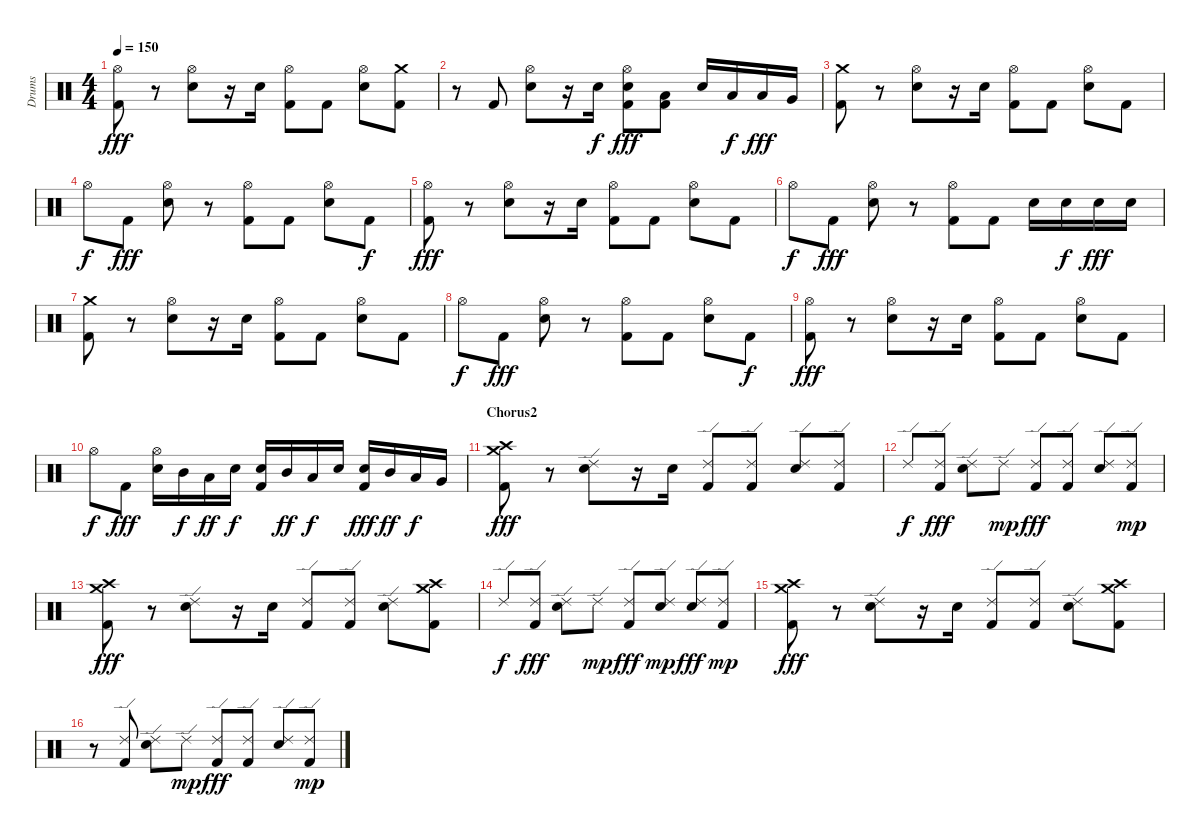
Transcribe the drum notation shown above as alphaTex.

\track ("Drums" "Drums") {instrument percussion}
\staff {score}
\articulation defaults
\ts (4 4)
\tempo 150
\clef neutral
\ks c
("Hi-Hat (open)" "Kick (hit) 2").8{dy fff} r.8 ("Hi-Hat (open)" "Electric Snare (hit)").8 r.16 "Electric Snare (hit)".16 ("Hi-Hat (open)" "Kick (hit) 2").8 "Kick (hit) 2".8 ("Hi-Hat (open)" "Electric Snare (hit)").8 ("Crash medium (hit)" "Kick (hit) 2").8 |
r.8 "Kick (hit) 2".8 ("Hi-Hat (open)" "Electric Snare (hit)").8 r.16 "Electric Snare (hit)".16{dy f} ("Hi-Hat (open)" "Electric Snare (hit)" "Kick (hit) 2").8{dy fff} ("Low Tom (hit)" "Kick (hit) 2").8 "Electric Snare (hit)".16 "Low Tom (hit)".16{dy f} "Low Tom (hit)".16{dy fff} "Very Low Tom (hit)".16 |
("Crash medium (hit)" "Kick (hit) 2").8 r.8 ("Hi-Hat (open)" "Electric Snare (hit)").8 r.16 "Electric Snare (hit)".16 ("Hi-Hat (open)" "Kick (hit) 2").8 "Kick (hit) 2".8 ("Hi-Hat (open)" "Electric Snare (hit)").8 "Kick (hit) 2".8 |
"Hi-Hat (open)".8{dy f} "Kick (hit) 2".8{dy fff} ("Hi-Hat (open)" "Electric Snare (hit)").8 r.8 ("Hi-Hat (open)" "Kick (hit) 2").8 "Kick (hit) 2".8 ("Hi-Hat (open)" "Electric Snare (hit)").8 "Kick (hit) 2".8{dy f} |
("Hi-Hat (open)" "Kick (hit) 2").8{dy fff} r.8 ("Hi-Hat (open)" "Electric Snare (hit)").8 r.16 "Electric Snare (hit)".16 ("Hi-Hat (open)" "Kick (hit) 2").8 "Kick (hit) 2".8 ("Hi-Hat (open)" "Electric Snare (hit)").8 "Kick (hit) 2".8 |
"Hi-Hat (open)".8{dy f} "Kick (hit) 2".8{dy fff} ("Hi-Hat (open)" "Electric Snare (hit)").8 r.8 ("Hi-Hat (open)" "Kick (hit) 2").8 "Kick (hit) 2".8 "Electric Snare (hit)".16 "Electric Snare (hit)".16{dy f} "Electric Snare (hit)".16{dy fff} "Electric Snare (hit)".16 |
("Crash medium (hit)" "Kick (hit) 2").8 r.8 ("Hi-Hat (open)" "Electric Snare (hit)").8 r.16 "Electric Snare (hit)".16 ("Hi-Hat (open)" "Kick (hit) 2").8 "Kick (hit) 2".8 ("Hi-Hat (open)" "Electric Snare (hit)").8 "Kick (hit) 2".8 |
"Hi-Hat (open)".8{dy f} "Kick (hit) 2".8{dy fff} ("Hi-Hat (open)" "Electric Snare (hit)").8 r.8 ("Hi-Hat (open)" "Kick (hit) 2").8 "Kick (hit) 2".8 ("Hi-Hat (open)" "Electric Snare (hit)").8 "Kick (hit) 2".8{dy f} |
("Hi-Hat (open)" "Kick (hit) 2").8{dy fff} r.8 ("Hi-Hat (open)" "Electric Snare (hit)").8 r.16 "Electric Snare (hit)".16 ("Hi-Hat (open)" "Kick (hit) 2").8 "Kick (hit) 2".8 ("Hi-Hat (open)" "Electric Snare (hit)").8 "Kick (hit) 2".8 |
"Hi-Hat (open)".8{dy f} "Kick (hit) 2".8{dy fff} ("Hi-Hat (open)" "Electric Snare (hit)").16 "Mid Tom (hit)".16{dy f} "Low Tom (hit)".16{dy ff} "Electric Snare (hit)".16{dy f} ("Electric Snare (hit)" "Kick (hit) 2").16 "Mid Tom (hit)".16{dy ff} "Low Tom (hit)".16{dy f} "Electric Snare (hit)".16 ("Electric Snare (hit)" "Kick (hit) 2").16{dy fff} "Mid Tom (hit)".16{dy ff} "Low Tom (hit)".16{dy f} "Very Low Tom (hit)".16 |
\section ("" "Chorus2")
("Crash high (hit)" "Crash medium (hit)" "Kick (hit) 2").8{dy fff} r.8 ("Ride (edge) 2" "Electric Snare (hit)").8 r.16 "Electric Snare (hit)".16 ("Ride (edge) 2" "Kick (hit) 2").8 ("Ride (edge) 2" "Kick (hit) 2").8 ("Ride (edge) 2" "Electric Snare (hit)").8 ("Ride (edge) 2" "Kick (hit) 2").8 |
"Ride (edge) 2".8{dy f} ("Ride (edge) 2" "Kick (hit) 2").8{dy fff} ("Ride (edge) 2" "Electric Snare (hit)").8 "Ride (edge) 2".8{dy mp} ("Ride (edge) 2" "Kick (hit) 2").8{dy fff} ("Ride (edge) 2" "Kick (hit) 2").8 ("Ride (edge) 2" "Electric Snare (hit)").8 ("Ride (edge) 2" "Kick (hit) 2").8{dy mp} |
("Crash medium (hit)" "Crash high (hit)" "Kick (hit) 2").8{dy fff} r.8 ("Ride (edge) 2" "Electric Snare (hit)").8 r.16 "Electric Snare (hit)".16 ("Ride (edge) 2" "Kick (hit) 2").8 ("Ride (edge) 2" "Kick (hit) 2").8 ("Ride (edge) 2" "Electric Snare (hit)").8 ("Crash medium (hit)" "Crash high (hit)" "Kick (hit) 2").8 |
"Ride (edge) 2".8{dy f} ("Ride (edge) 2" "Kick (hit) 2").8{dy fff} ("Ride (edge) 2" "Electric Snare (hit)").8 "Ride (edge) 2".8{dy mp} ("Ride (edge) 2" "Kick (hit) 2").8{dy fff} ("Ride (edge) 2" "Electric Snare (hit)").8{dy mp} ("Ride (edge) 2" "Electric Snare (hit)").8{dy fff} ("Ride (edge) 2" "Kick (hit) 2").8{dy mp} |
("Crash high (hit)" "Crash medium (hit)" "Kick (hit) 2").8{dy fff} r.8 ("Ride (edge) 2" "Electric Snare (hit)").8 r.16 "Electric Snare (hit)".16 ("Ride (edge) 2" "Kick (hit) 2").8 ("Ride (edge) 2" "Kick (hit) 2").8 ("Ride (edge) 2" "Electric Snare (hit)").8 ("Crash medium (hit)" "Crash high (hit)" "Kick (hit) 2").8 |
r.8 ("Ride (edge) 2" "Kick (hit) 2").8 ("Ride (edge) 2" "Electric Snare (hit)").8 "Ride (edge) 2".8{dy mp} ("Ride (edge) 2" "Kick (hit) 2").8{dy fff} ("Ride (edge) 2" "Kick (hit) 2").8 ("Ride (edge) 2" "Electric Snare (hit)").8 ("Ride (edge) 2" "Kick (hit) 2").8{dy mp}
